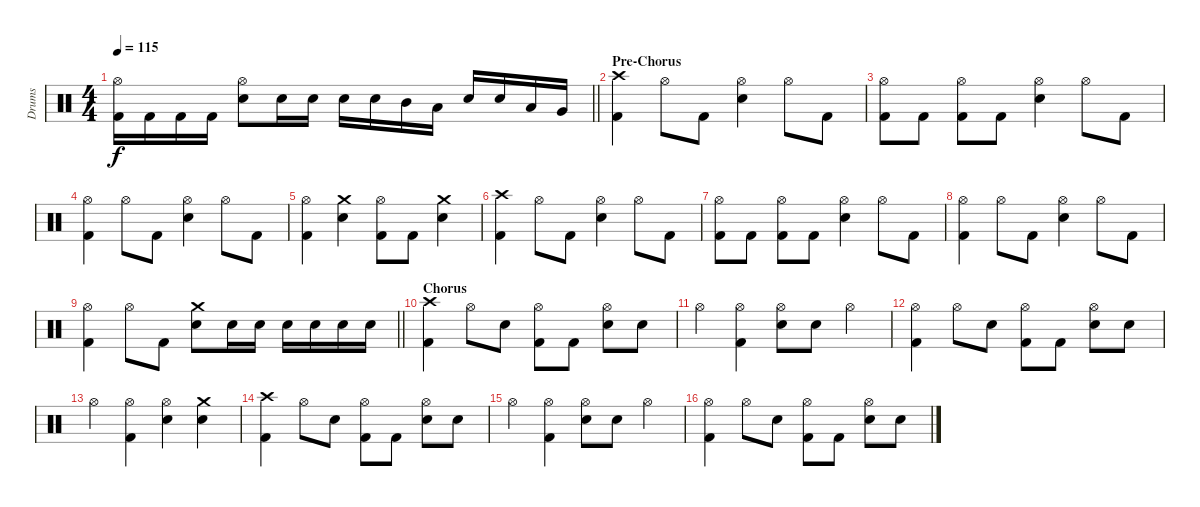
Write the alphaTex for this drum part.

\track ("Drums" "Drums") {instrument percussion}
\staff {score}
\articulation defaults
\ts (4 4)
\tempo 115
\clef neutral
\barLineRight lightlight
\ks c
("Hi-Hat (open)" "Kick (hit) 2").16{dy f} "Kick (hit) 2".16 "Kick (hit) 2".16 "Kick (hit) 2".16 ("Hi-Hat (open)" "Electric Snare (hit)").8 "Electric Snare (hit)".16 "Electric Snare (hit)".16 "Electric Snare (hit)".16 "Electric Snare (hit)".16 "Mid Tom (hit)".16 "Low Tom (hit)".16 "Electric Snare (hit)".16 "Electric Snare (hit)".16 "Low Tom (hit)".16 "Very Low Tom (hit)".16 |
\section ("" "Pre-Chorus")
("Crash high (hit)" "Kick (hit) 2").4 "Hi-Hat (open)".8 "Kick (hit) 2".8 ("Hi-Hat (open)" "Electric Snare (hit)").4 "Hi-Hat (open)".8 "Kick (hit) 2".8 |
("Hi-Hat (open)" "Kick (hit) 2").8 "Kick (hit) 2".8 ("Hi-Hat (open)" "Kick (hit) 2").8 "Kick (hit) 2".8 ("Hi-Hat (open)" "Electric Snare (hit)").4 "Hi-Hat (open)".8 "Kick (hit) 2".8 |
("Hi-Hat (open)" "Kick (hit) 2").4 "Hi-Hat (open)".8 "Kick (hit) 2".8 ("Hi-Hat (open)" "Electric Snare (hit)").4 "Hi-Hat (open)".8 "Kick (hit) 2".8 |
("Hi-Hat (open)" "Kick (hit) 2").4 ("Crash medium (hit)" "Electric Snare (hit)").4 ("Hi-Hat (open)" "Kick (hit) 2").8 "Kick (hit) 2".8 ("Crash medium (hit)" "Electric Snare (hit)").4 |
("Crash high (hit)" "Kick (hit) 2").4 "Hi-Hat (open)".8 "Kick (hit) 2".8 ("Hi-Hat (open)" "Electric Snare (hit)").4 "Hi-Hat (open)".8 "Kick (hit) 2".8 |
("Hi-Hat (open)" "Kick (hit) 2").8 "Kick (hit) 2".8 ("Hi-Hat (open)" "Kick (hit) 2").8 "Kick (hit) 2".8 ("Hi-Hat (open)" "Electric Snare (hit)").4 "Hi-Hat (open)".8 "Kick (hit) 2".8 |
("Hi-Hat (open)" "Kick (hit) 2").4 "Hi-Hat (open)".8 "Kick (hit) 2".8 ("Hi-Hat (open)" "Electric Snare (hit)").4 "Hi-Hat (open)".8 "Kick (hit) 2".8 |
\barLineRight lightlight
("Hi-Hat (open)" "Kick (hit) 2").4 "Hi-Hat (open)".8 "Kick (hit) 2".8 ("Crash medium (hit)" "Electric Snare (hit)").8 "Electric Snare (hit)".16 "Electric Snare (hit)".16 "Electric Snare (hit)".16 "Electric Snare (hit)".16 "Electric Snare (hit)".16 "Electric Snare (hit)".16 |
\section ("" "Chorus")
("Crash high (hit)" "Kick (hit) 2").4 "Hi-Hat (open)".8 "Electric Snare (hit)".8 ("Hi-Hat (open)" "Kick (hit) 2").8 "Kick (hit) 2".8 ("Hi-Hat (open)" "Electric Snare (hit)").8 "Electric Snare (hit)".8 |
"Hi-Hat (open)".4 ("Hi-Hat (open)" "Kick (hit) 2").4 ("Hi-Hat (open)" "Electric Snare (hit)").8 "Electric Snare (hit)".8 "Hi-Hat (open)".4 |
("Hi-Hat (open)" "Kick (hit) 2").4 "Hi-Hat (open)".8 "Electric Snare (hit)".8 ("Hi-Hat (open)" "Kick (hit) 2").8 "Kick (hit) 2".8 ("Hi-Hat (open)" "Electric Snare (hit)").8 "Electric Snare (hit)".8 |
"Hi-Hat (open)".4 ("Hi-Hat (open)" "Kick (hit) 2").4 ("Hi-Hat (open)" "Electric Snare (hit)").4 ("Crash medium (hit)" "Electric Snare (hit)").4 |
("Crash high (hit)" "Kick (hit) 2").4 "Hi-Hat (open)".8 "Electric Snare (hit)".8 ("Hi-Hat (open)" "Kick (hit) 2").8 "Kick (hit) 2".8 ("Hi-Hat (open)" "Electric Snare (hit)").8 "Electric Snare (hit)".8 |
"Hi-Hat (open)".4 ("Hi-Hat (open)" "Kick (hit) 2").4 ("Hi-Hat (open)" "Electric Snare (hit)").8 "Electric Snare (hit)".8 "Hi-Hat (open)".4 |
("Hi-Hat (open)" "Kick (hit) 2").4 "Hi-Hat (open)".8 "Electric Snare (hit)".8 ("Hi-Hat (open)" "Kick (hit) 2").8 "Kick (hit) 2".8 ("Hi-Hat (open)" "Electric Snare (hit)").8 "Electric Snare (hit)".8
